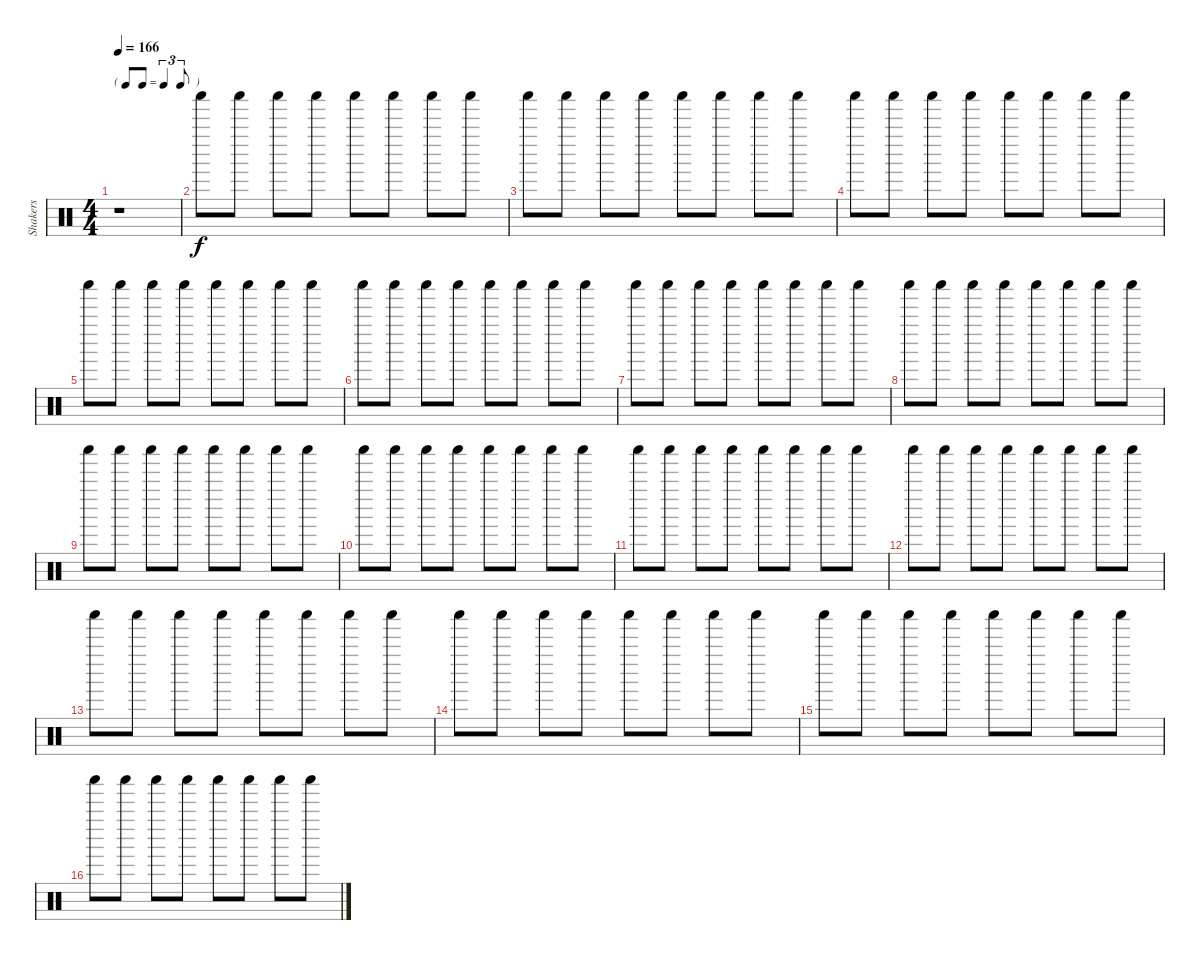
\track ("Shakers" "Shakers") {instrument percussion}
\staff {score}
\articulation defaults
\ts (4 4)
\tf triplet8th
\tempo 166
\clef neutral
\ks c
r.1{dy f} |
"Shaker (hit)".8 "Shaker (hit)".8 "Shaker (hit)".8 "Shaker (hit)".8 "Shaker (hit)".8 "Shaker (hit)".8 "Shaker (hit)".8 "Shaker (hit)".8 |
"Shaker (hit)".8 "Shaker (hit)".8 "Shaker (hit)".8 "Shaker (hit)".8 "Shaker (hit)".8 "Shaker (hit)".8 "Shaker (hit)".8 "Shaker (hit)".8 |
"Shaker (hit)".8 "Shaker (hit)".8 "Shaker (hit)".8 "Shaker (hit)".8 "Shaker (hit)".8 "Shaker (hit)".8 "Shaker (hit)".8 "Shaker (hit)".8 |
"Shaker (hit)".8 "Shaker (hit)".8 "Shaker (hit)".8 "Shaker (hit)".8 "Shaker (hit)".8 "Shaker (hit)".8 "Shaker (hit)".8 "Shaker (hit)".8 |
"Shaker (hit)".8 "Shaker (hit)".8 "Shaker (hit)".8 "Shaker (hit)".8 "Shaker (hit)".8 "Shaker (hit)".8 "Shaker (hit)".8 "Shaker (hit)".8 |
"Shaker (hit)".8 "Shaker (hit)".8 "Shaker (hit)".8 "Shaker (hit)".8 "Shaker (hit)".8 "Shaker (hit)".8 "Shaker (hit)".8 "Shaker (hit)".8 |
"Shaker (hit)".8 "Shaker (hit)".8 "Shaker (hit)".8 "Shaker (hit)".8 "Shaker (hit)".8 "Shaker (hit)".8 "Shaker (hit)".8 "Shaker (hit)".8 |
"Shaker (hit)".8 "Shaker (hit)".8 "Shaker (hit)".8 "Shaker (hit)".8 "Shaker (hit)".8 "Shaker (hit)".8 "Shaker (hit)".8 "Shaker (hit)".8 |
"Shaker (hit)".8 "Shaker (hit)".8 "Shaker (hit)".8 "Shaker (hit)".8 "Shaker (hit)".8 "Shaker (hit)".8 "Shaker (hit)".8 "Shaker (hit)".8 |
"Shaker (hit)".8 "Shaker (hit)".8 "Shaker (hit)".8 "Shaker (hit)".8 "Shaker (hit)".8 "Shaker (hit)".8 "Shaker (hit)".8 "Shaker (hit)".8 |
"Shaker (hit)".8 "Shaker (hit)".8 "Shaker (hit)".8 "Shaker (hit)".8 "Shaker (hit)".8 "Shaker (hit)".8 "Shaker (hit)".8 "Shaker (hit)".8 |
"Shaker (hit)".8 "Shaker (hit)".8 "Shaker (hit)".8 "Shaker (hit)".8 "Shaker (hit)".8 "Shaker (hit)".8 "Shaker (hit)".8 "Shaker (hit)".8 |
"Shaker (hit)".8 "Shaker (hit)".8 "Shaker (hit)".8 "Shaker (hit)".8 "Shaker (hit)".8 "Shaker (hit)".8 "Shaker (hit)".8 "Shaker (hit)".8 |
"Shaker (hit)".8 "Shaker (hit)".8 "Shaker (hit)".8 "Shaker (hit)".8 "Shaker (hit)".8 "Shaker (hit)".8 "Shaker (hit)".8 "Shaker (hit)".8 |
"Shaker (hit)".8 "Shaker (hit)".8 "Shaker (hit)".8 "Shaker (hit)".8 "Shaker (hit)".8 "Shaker (hit)".8 "Shaker (hit)".8 "Shaker (hit)".8
